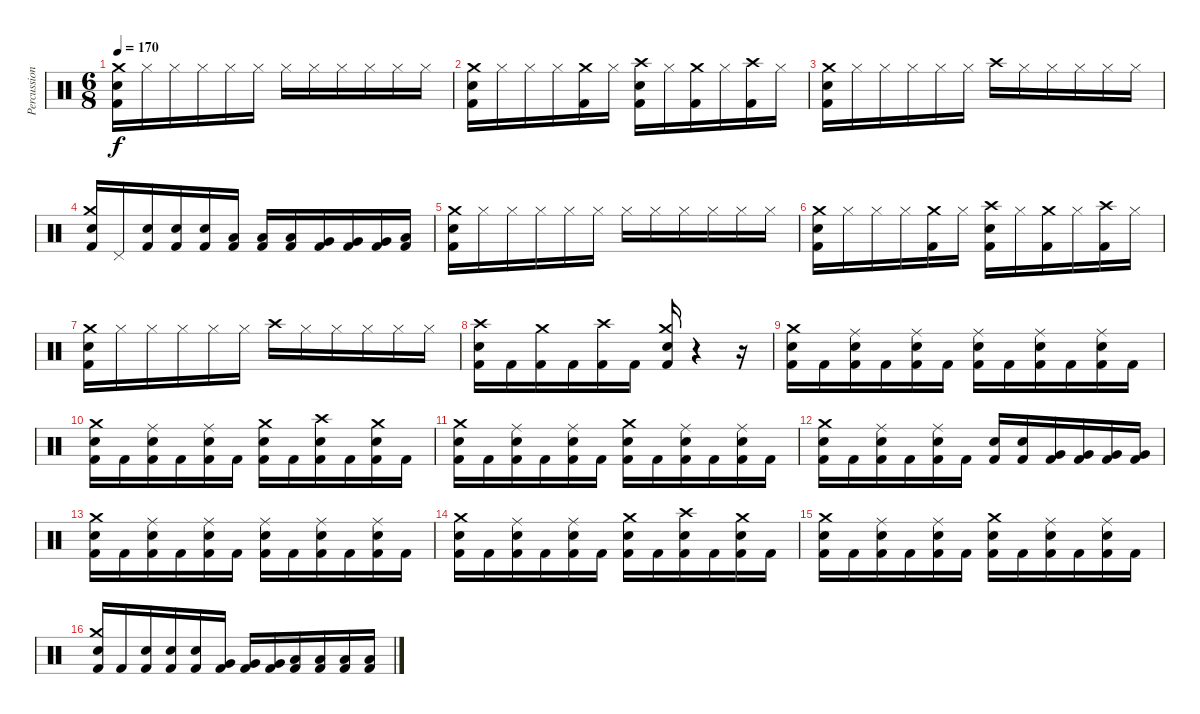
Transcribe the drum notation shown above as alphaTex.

\track ("Percussions" "Percussion") {instrument percussion}
\staff {score}
\articulation defaults
\ts (6 8)
\tempo 170
\clef neutral
\ks c
("Electric Snare (hit)" "Crash medium (hit)" "Kick (hit) 2").16{dy f} "Hi-Hat (closed)".16 "Hi-Hat (closed)".16 "Hi-Hat (closed)".16 "Hi-Hat (closed)".16 "Hi-Hat (closed)".16 "Hi-Hat (closed)".16 "Hi-Hat (closed)".16 "Hi-Hat (closed)".16 "Hi-Hat (closed)".16 "Hi-Hat (closed)".16 "Hi-Hat (closed)".16 |
("Electric Snare (hit)" "Crash medium (hit)" "Kick (hit) 2").16 "Hi-Hat (closed)".16 "Hi-Hat (closed)".16 "Hi-Hat (closed)".16 ("Crash medium (hit)" "Kick (hit) 2").16 "Hi-Hat (closed)".16 ("Electric Snare (hit)" "Crash high (hit)" "Kick (hit) 2").16 "Hi-Hat (closed)".16 ("Crash medium (hit)" "Kick (hit) 2").16 "Hi-Hat (closed)".16 ("Crash high (hit)" "Kick (hit) 2").16 "Hi-Hat (closed)".16 |
("Electric Snare (hit)" "Crash medium (hit)" "Kick (hit) 2").16 "Hi-Hat (closed)".16 "Hi-Hat (closed)".16 "Hi-Hat (closed)".16 "Hi-Hat (closed)".16 "Hi-Hat (closed)".16 "Crash high (hit)".16 "Hi-Hat (closed)".16 "Hi-Hat (closed)".16 "Hi-Hat (closed)".16 "Hi-Hat (closed)".16 "Hi-Hat (closed)".16 |
("Crash medium (hit)" "Electric Snare (hit)" "Kick (hit) 2").16 "Pedal Hi-Hat (hit)".16 ("Electric Snare (hit)" "Kick (hit) 2").16 ("Electric Snare (hit)" "Kick (hit) 2").16 ("Electric Snare (hit)" "Kick (hit) 2").16 ("Low Tom (hit)" "Kick (hit) 2").16 ("Low Tom (hit)" "Kick (hit) 2").16 ("Low Tom (hit)" "Kick (hit) 2").16 ("Very Low Tom (hit)" "Kick (hit) 2").16 ("Very Low Tom (hit)" "Kick (hit) 2").16 ("Very Low Tom (hit)" "Kick (hit) 2").16 ("Low Floor Tom (hit)" "Kick (hit) 2").16 |
("Electric Snare (hit)" "Crash medium (hit)" "Kick (hit) 2").16 "Hi-Hat (closed)".16 "Hi-Hat (closed)".16 "Hi-Hat (closed)".16 "Hi-Hat (closed)".16 "Hi-Hat (closed)".16 "Hi-Hat (closed)".16 "Hi-Hat (closed)".16 "Hi-Hat (closed)".16 "Hi-Hat (closed)".16 "Hi-Hat (closed)".16 "Hi-Hat (closed)".16 |
("Electric Snare (hit)" "Crash medium (hit)" "Kick (hit) 2").16 "Hi-Hat (closed)".16 "Hi-Hat (closed)".16 "Hi-Hat (closed)".16 ("Crash medium (hit)" "Kick (hit) 2").16 "Hi-Hat (closed)".16 ("Electric Snare (hit)" "Crash high (hit)" "Kick (hit) 2").16 "Hi-Hat (closed)".16 ("Crash medium (hit)" "Kick (hit) 2").16 "Hi-Hat (closed)".16 ("Crash high (hit)" "Kick (hit) 2").16 "Hi-Hat (closed)".16 |
("Electric Snare (hit)" "Crash medium (hit)" "Kick (hit) 2").16 "Hi-Hat (closed)".16 "Hi-Hat (closed)".16 "Hi-Hat (closed)".16 "Hi-Hat (closed)".16 "Hi-Hat (closed)".16 "Crash high (hit)".16 "Hi-Hat (closed)".16 "Hi-Hat (closed)".16 "Hi-Hat (closed)".16 "Hi-Hat (closed)".16 "Hi-Hat (closed)".16 |
("Crash high (hit)" "Electric Snare (hit)" "Kick (hit) 2").16 "Kick (hit) 2".16 ("Crash medium (hit)" "Kick (hit) 2").16 "Kick (hit) 2".16 ("Crash high (hit)" "Kick (hit) 2").16 "Kick (hit) 2".16 ("Crash medium (hit)" "Electric Snare (hit)" "Kick (hit) 2").16 r.4 r.16 |
("Crash medium (hit)" "Electric Snare (hit)" "Kick (hit) 2").16 "Kick (hit) 2".16 ("Ride (middle)" "Electric Snare (hit)" "Kick (hit) 2").16 "Kick (hit) 2".16 ("Ride (middle)" "Electric Snare (hit)" "Kick (hit) 2").16 "Kick (hit) 2".16 ("Ride (middle)" "Electric Snare (hit)" "Kick (hit) 2").16 "Kick (hit) 2".16 ("Ride (middle)" "Electric Snare (hit)" "Kick (hit) 2").16 "Kick (hit) 2".16 ("Ride (middle)" "Electric Snare (hit)" "Kick (hit) 2").16 "Kick (hit) 2".16 |
("Crash medium (hit)" "Electric Snare (hit)" "Kick (hit) 2").16 "Kick (hit) 2".16 ("Ride (middle)" "Electric Snare (hit)" "Kick (hit) 2").16 "Kick (hit) 2".16 ("Ride (middle)" "Electric Snare (hit)" "Kick (hit) 2").16 "Kick (hit) 2".16 ("Crash medium (hit)" "Electric Snare (hit)" "Kick (hit) 2").16 "Kick (hit) 2".16 ("Crash high (hit)" "Electric Snare (hit)" "Kick (hit) 2").16 "Kick (hit) 2".16 ("Crash medium (hit)" "Electric Snare (hit)" "Kick (hit) 2").16 "Kick (hit) 2".16 |
("Crash medium (hit)" "Electric Snare (hit)" "Kick (hit) 2").16 "Kick (hit) 2".16 ("Ride (middle)" "Electric Snare (hit)" "Kick (hit) 2").16 "Kick (hit) 2".16 ("Ride (middle)" "Electric Snare (hit)" "Kick (hit) 2").16 "Kick (hit) 2".16 ("Crash medium (hit)" "Electric Snare (hit)" "Kick (hit) 2").16 "Kick (hit) 2".16 ("Ride (middle)" "Electric Snare (hit)" "Kick (hit) 2").16 "Kick (hit) 2".16 ("Ride (middle)" "Electric Snare (hit)" "Kick (hit) 2").16 "Kick (hit) 2".16 |
("Crash medium (hit)" "Electric Snare (hit)" "Kick (hit) 2").16 "Kick (hit) 2".16 ("Ride (middle)" "Electric Snare (hit)" "Kick (hit) 2").16 "Kick (hit) 2".16 ("Ride (middle)" "Electric Snare (hit)" "Kick (hit) 2").16 "Kick (hit) 2".16 ("Electric Snare (hit)" "Kick (hit) 2").16 ("Electric Snare (hit)" "Kick (hit) 2").16 ("Very Low Tom (hit)" "Kick (hit) 2").16 ("Very Low Tom (hit)" "Kick (hit) 2").16 ("Very Low Tom (hit)" "Kick (hit) 2").16 ("Very Low Tom (hit)" "Kick (hit) 2").16 |
("Crash medium (hit)" "Electric Snare (hit)" "Kick (hit) 2").16 "Kick (hit) 2".16 ("Ride (middle)" "Electric Snare (hit)" "Kick (hit) 2").16 "Kick (hit) 2".16 ("Ride (middle)" "Electric Snare (hit)" "Kick (hit) 2").16 "Kick (hit) 2".16 ("Ride (middle)" "Electric Snare (hit)" "Kick (hit) 2").16 "Kick (hit) 2".16 ("Ride (middle)" "Electric Snare (hit)" "Kick (hit) 2").16 "Kick (hit) 2".16 ("Ride (middle)" "Electric Snare (hit)" "Kick (hit) 2").16 "Kick (hit) 2".16 |
("Crash medium (hit)" "Electric Snare (hit)" "Kick (hit) 2").16 "Kick (hit) 2".16 ("Ride (middle)" "Electric Snare (hit)" "Kick (hit) 2").16 "Kick (hit) 2".16 ("Ride (middle)" "Electric Snare (hit)" "Kick (hit) 2").16 "Kick (hit) 2".16 ("Crash medium (hit)" "Electric Snare (hit)" "Kick (hit) 2").16 "Kick (hit) 2".16 ("Crash high (hit)" "Electric Snare (hit)" "Kick (hit) 2").16 "Kick (hit) 2".16 ("Crash medium (hit)" "Electric Snare (hit)" "Kick (hit) 2").16 "Kick (hit) 2".16 |
("Crash medium (hit)" "Electric Snare (hit)" "Kick (hit) 2").16 "Kick (hit) 2".16 ("Ride (middle)" "Electric Snare (hit)" "Kick (hit) 2").16 "Kick (hit) 2".16 ("Ride (middle)" "Electric Snare (hit)" "Kick (hit) 2").16 "Kick (hit) 2".16 ("Crash medium (hit)" "Electric Snare (hit)" "Kick (hit) 2").16 "Kick (hit) 2".16 ("Ride (middle)" "Electric Snare (hit)" "Kick (hit) 2").16 "Kick (hit) 2".16 ("Ride (middle)" "Electric Snare (hit)" "Kick (hit) 2").16 "Kick (hit) 2".16 |
("Crash medium (hit)" "Electric Snare (hit)" "Kick (hit) 2").16 "Kick (hit) 2".16 ("Electric Snare (hit)" "Kick (hit) 2").16 ("Electric Snare (hit)" "Kick (hit) 2").16 ("Electric Snare (hit)" "Kick (hit) 2").16 ("Very Low Tom (hit)" "Kick (hit) 2").16 ("Very Low Tom (hit)" "Kick (hit) 2").16 ("Very Low Tom (hit)" "Kick (hit) 2").16 ("Low Floor Tom (hit)" "Kick (hit) 2").16 ("Low Floor Tom (hit)" "Kick (hit) 2").16 ("Low Floor Tom (hit)" "Kick (hit) 2").16 ("Low Floor Tom (hit)" "Kick (hit) 2").16
